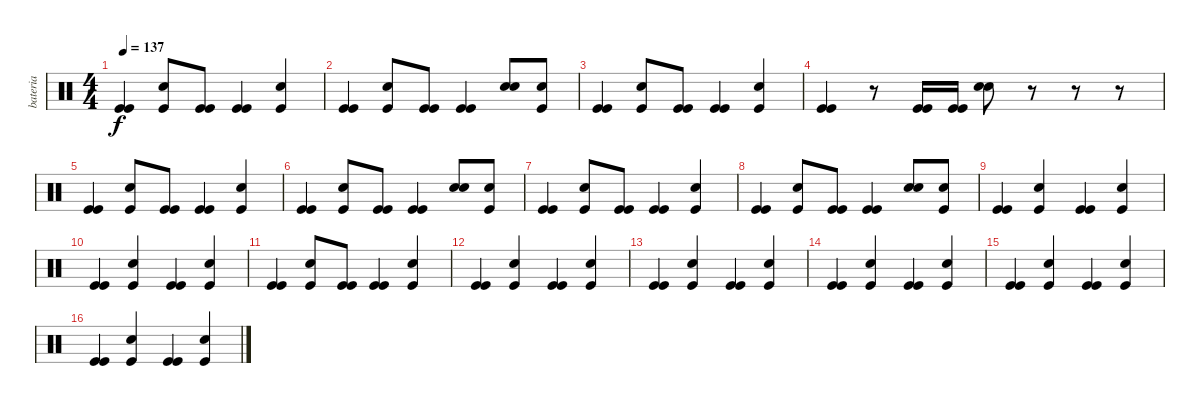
\track ("bateria" "bateria") {instrument percussion}
\staff {score}
\articulation defaults
\ts (4 4)
\tempo 137
\clef neutral
\ks c
("Kick (hit)" "Kick (hit)").4{dy f} ("Snare (hit) 2" "Kick (hit)").8 ("Kick (hit)" "Kick (hit)").8 ("Kick (hit)" "Kick (hit)").4 ("Snare (hit) 2" "Kick (hit)").4 |
("Kick (hit)" "Kick (hit)").4 ("Snare (hit) 2" "Kick (hit)").8 ("Kick (hit)" "Kick (hit)").8 ("Kick (hit)" "Kick (hit)").4 ("Snare (hit) 2" "Snare (hit) 2").8 ("Snare (hit) 2" "Kick (hit)").8 |
("Kick (hit)" "Kick (hit)").4 ("Snare (hit) 2" "Kick (hit)").8 ("Kick (hit)" "Kick (hit)").8 ("Kick (hit)" "Kick (hit)").4 ("Snare (hit) 2" "Kick (hit)").4 |
("Kick (hit)" "Kick (hit)").4 r.8 ("Kick (hit)" "Kick (hit)").16 ("Kick (hit)" "Kick (hit)").16 ("Snare (hit) 2" "Snare (hit) 2").8 r.8 r.8 r.8 |
("Kick (hit)" "Kick (hit)").4 ("Snare (hit) 2" "Kick (hit)").8 ("Kick (hit)" "Kick (hit)").8 ("Kick (hit)" "Kick (hit)").4 ("Snare (hit) 2" "Kick (hit)").4 |
("Kick (hit)" "Kick (hit)").4 ("Snare (hit) 2" "Kick (hit)").8 ("Kick (hit)" "Kick (hit)").8 ("Kick (hit)" "Kick (hit)").4 ("Snare (hit) 2" "Snare (hit) 2").8 ("Snare (hit) 2" "Kick (hit)").8 |
("Kick (hit)" "Kick (hit)").4 ("Snare (hit) 2" "Kick (hit)").8 ("Kick (hit)" "Kick (hit)").8 ("Kick (hit)" "Kick (hit)").4 ("Snare (hit) 2" "Kick (hit)").4 |
("Kick (hit)" "Kick (hit)").4 ("Snare (hit) 2" "Kick (hit)").8 ("Kick (hit)" "Kick (hit)").8 ("Kick (hit)" "Kick (hit)").4 ("Snare (hit) 2" "Snare (hit) 2").8 ("Snare (hit) 2" "Kick (hit)").8 |
("Kick (hit)" "Kick (hit)").4 ("Kick (hit)" "Snare (hit) 2").4 ("Kick (hit)" "Kick (hit)").4 ("Snare (hit) 2" "Kick (hit)").4 |
("Kick (hit)" "Kick (hit)").4 ("Kick (hit)" "Snare (hit) 2").4 ("Kick (hit)" "Kick (hit)").4 ("Snare (hit) 2" "Kick (hit)").4 |
("Kick (hit)" "Kick (hit)").4 ("Snare (hit) 2" "Kick (hit)").8 ("Kick (hit)" "Kick (hit)").8 ("Kick (hit)" "Kick (hit)").4 ("Snare (hit) 2" "Kick (hit)").4 |
("Kick (hit)" "Kick (hit)").4 ("Kick (hit)" "Snare (hit) 2").4 ("Kick (hit)" "Kick (hit)").4 ("Snare (hit) 2" "Kick (hit)").4 |
("Kick (hit)" "Kick (hit)").4 ("Kick (hit)" "Snare (hit) 2").4 ("Kick (hit)" "Kick (hit)").4 ("Snare (hit) 2" "Kick (hit)").4 |
("Kick (hit)" "Kick (hit)").4 ("Kick (hit)" "Snare (hit) 2").4 ("Kick (hit)" "Kick (hit)").4 ("Snare (hit) 2" "Kick (hit)").4 |
("Kick (hit)" "Kick (hit)").4 ("Kick (hit)" "Snare (hit) 2").4 ("Kick (hit)" "Kick (hit)").4 ("Snare (hit) 2" "Kick (hit)").4 |
("Kick (hit)" "Kick (hit)").4 ("Kick (hit)" "Snare (hit) 2").4 ("Kick (hit)" "Kick (hit)").4 ("Snare (hit) 2" "Kick (hit)").4
